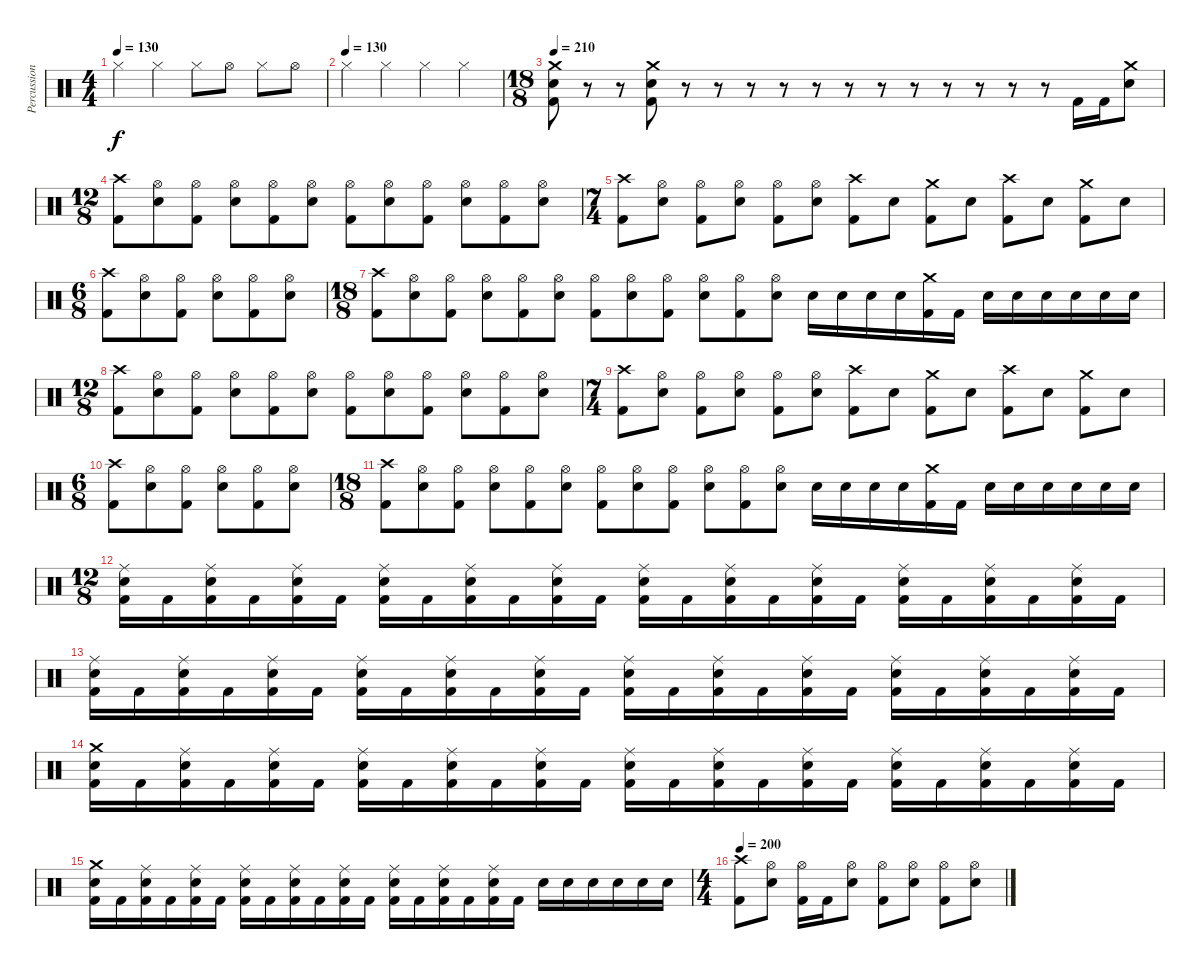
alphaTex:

\track ("Percussion" "Percussion") {instrument percussion}
\staff {score}
\articulation defaults
\ts (4 4)
\tempo 130
\clef neutral
\ks c "Hi-Hat (closed)".4{dy f} "Hi-Hat (closed)".4 "Hi-Hat (closed)".8 "Hi-Hat (open)".8 "Hi-Hat (closed)".8 "Hi-Hat (open)".8
|
\tempo (130)
"Hi-Hat (closed)".4 "Hi-Hat (closed)".4 "Hi-Hat (closed)".4 "Hi-Hat (closed)".4 |
\ts (18 8)
\tempo 210
("Crash medium (hit)" "Electric Snare (hit)" "Kick (hit) 2").8 r.8 r.8 ("Crash medium (hit)" "Electric Snare (hit)" "Kick (hit) 2").8 r.8 r.8 r.8 r.8 r.8 r.8 r.8 r.8 r.8 r.8 r.8 r.8 "Kick (hit) 2".16 "Kick (hit) 2".16 ("Crash medium (hit)" "Electric Snare (hit)").8 |
\ts (12 8)
("Crash high (hit)" "Kick (hit) 2").8 ("Hi-Hat (open)" "Electric Snare (hit)").8 ("Hi-Hat (open)" "Kick (hit) 2").8 ("Hi-Hat (open)" "Electric Snare (hit)").8 ("Hi-Hat (open)" "Kick (hit) 2").8 ("Hi-Hat (open)" "Electric Snare (hit)").8 ("Hi-Hat (open)" "Kick (hit) 2").8 ("Hi-Hat (open)" "Electric Snare (hit)").8 ("Hi-Hat (open)" "Kick (hit) 2").8 ("Hi-Hat (open)" "Electric Snare (hit)").8 ("Hi-Hat (open)" "Kick (hit) 2").8 ("Hi-Hat (open)" "Electric Snare (hit)").8 |
\ts (7 4)
("Crash high (hit)" "Kick (hit) 2").8 ("Hi-Hat (open)" "Electric Snare (hit)").8 ("Hi-Hat (open)" "Kick (hit) 2").8 ("Hi-Hat (open)" "Electric Snare (hit)").8 ("Hi-Hat (open)" "Kick (hit) 2").8 ("Hi-Hat (open)" "Electric Snare (hit)").8 ("Crash high (hit)" "Kick (hit) 2").8 "Electric Snare (hit)".8 ("Crash medium (hit)" "Kick (hit) 2").8 "Electric Snare (hit)".8 ("Crash high (hit)" "Kick (hit) 2").8 "Electric Snare (hit)".8 ("Crash medium (hit)" "Kick (hit) 2").8 "Electric Snare (hit)".8 |
\ts (6 8)
("Crash high (hit)" "Kick (hit) 2").8 ("Hi-Hat (open)" "Electric Snare (hit)").8 ("Hi-Hat (open)" "Kick (hit) 2").8 ("Hi-Hat (open)" "Electric Snare (hit)").8 ("Hi-Hat (open)" "Kick (hit) 2").8 ("Hi-Hat (open)" "Electric Snare (hit)").8 |
\ts (18 8)
("Crash high (hit)" "Kick (hit) 2").8 ("Hi-Hat (open)" "Electric Snare (hit)").8 ("Hi-Hat (open)" "Kick (hit) 2").8 ("Hi-Hat (open)" "Electric Snare (hit)").8 ("Hi-Hat (open)" "Kick (hit) 2").8 ("Hi-Hat (open)" "Electric Snare (hit)").8 ("Hi-Hat (open)" "Kick (hit) 2").8 ("Hi-Hat (open)" "Electric Snare (hit)").8 ("Hi-Hat (open)" "Kick (hit) 2").8 ("Hi-Hat (open)" "Electric Snare (hit)").8 ("Hi-Hat (open)" "Kick (hit) 2").8 ("Hi-Hat (open)" "Electric Snare (hit)").8 "Electric Snare (hit)".16 "Electric Snare (hit)".16 "Electric Snare (hit)".16 "Electric Snare (hit)".16 ("Crash medium (hit)" "Kick (hit) 2").16 "Kick (hit) 2".16 "Electric Snare (hit)".16 "Electric Snare (hit)".16 "Electric Snare (hit)".16 "Electric Snare (hit)".16 "Electric Snare (hit)".16 "Electric Snare (hit)".16 |
\ts (12 8)
("Crash high (hit)" "Kick (hit) 2").8 ("Hi-Hat (open)" "Electric Snare (hit)").8 ("Hi-Hat (open)" "Kick (hit) 2").8 ("Hi-Hat (open)" "Electric Snare (hit)").8 ("Hi-Hat (open)" "Kick (hit) 2").8 ("Hi-Hat (open)" "Electric Snare (hit)").8 ("Hi-Hat (open)" "Kick (hit) 2").8 ("Hi-Hat (open)" "Electric Snare (hit)").8 ("Hi-Hat (open)" "Kick (hit) 2").8 ("Hi-Hat (open)" "Electric Snare (hit)").8 ("Hi-Hat (open)" "Kick (hit) 2").8 ("Hi-Hat (open)" "Electric Snare (hit)").8 |
\ts (7 4)
("Crash high (hit)" "Kick (hit) 2").8 ("Hi-Hat (open)" "Electric Snare (hit)").8 ("Hi-Hat (open)" "Kick (hit) 2").8 ("Hi-Hat (open)" "Electric Snare (hit)").8 ("Hi-Hat (open)" "Kick (hit) 2").8 ("Hi-Hat (open)" "Electric Snare (hit)").8 ("Crash high (hit)" "Kick (hit) 2").8 "Electric Snare (hit)".8 ("Crash medium (hit)" "Kick (hit) 2").8 "Electric Snare (hit)".8 ("Crash high (hit)" "Kick (hit) 2").8 "Electric Snare (hit)".8 ("Crash medium (hit)" "Kick (hit) 2").8 "Electric Snare (hit)".8 |
\ts (6 8)
("Crash high (hit)" "Kick (hit) 2").8 ("Hi-Hat (open)" "Electric Snare (hit)").8 ("Hi-Hat (open)" "Kick (hit) 2").8 ("Hi-Hat (open)" "Electric Snare (hit)").8 ("Hi-Hat (open)" "Kick (hit) 2").8 ("Hi-Hat (open)" "Electric Snare (hit)").8 |
\ts (18 8)
("Crash high (hit)" "Kick (hit) 2").8 ("Hi-Hat (open)" "Electric Snare (hit)").8 ("Hi-Hat (open)" "Kick (hit) 2").8 ("Hi-Hat (open)" "Electric Snare (hit)").8 ("Hi-Hat (open)" "Kick (hit) 2").8 ("Hi-Hat (open)" "Electric Snare (hit)").8 ("Hi-Hat (open)" "Kick (hit) 2").8 ("Hi-Hat (open)" "Electric Snare (hit)").8 ("Hi-Hat (open)" "Kick (hit) 2").8 ("Hi-Hat (open)" "Electric Snare (hit)").8 ("Hi-Hat (open)" "Kick (hit) 2").8 ("Hi-Hat (open)" "Electric Snare (hit)").8 "Electric Snare (hit)".16 "Electric Snare (hit)".16 "Electric Snare (hit)".16 "Electric Snare (hit)".16 ("Crash medium (hit)" "Kick (hit) 2").16 "Kick (hit) 2".16 "Electric Snare (hit)".16 "Electric Snare (hit)".16 "Electric Snare (hit)".16 "Electric Snare (hit)".16 "Electric Snare (hit)".16 "Electric Snare (hit)".16 |
\ts (12 8)
("Ride (middle)" "Electric Snare (hit)" "Kick (hit) 2").16 "Kick (hit) 2".16 ("Ride (middle)" "Electric Snare (hit)" "Kick (hit) 2").16 "Kick (hit) 2".16 ("Ride (middle)" "Electric Snare (hit)" "Kick (hit) 2").16 "Kick (hit) 2".16 ("Ride (middle)" "Electric Snare (hit)" "Kick (hit) 2").16 "Kick (hit) 2".16 ("Ride (middle)" "Electric Snare (hit)" "Kick (hit) 2").16 "Kick (hit) 2".16 ("Ride (middle)" "Electric Snare (hit)" "Kick (hit) 2").16 "Kick (hit) 2".16 ("Ride (middle)" "Electric Snare (hit)" "Kick (hit) 2").16 "Kick (hit) 2".16 ("Ride (middle)" "Electric Snare (hit)" "Kick (hit) 2").16 "Kick (hit) 2".16 ("Ride (middle)" "Electric Snare (hit)" "Kick (hit) 2").16 "Kick (hit) 2".16 ("Ride (middle)" "Electric Snare (hit)" "Kick (hit) 2").16 "Kick (hit) 2".16 ("Ride (middle)" "Electric Snare (hit)" "Kick (hit) 2").16 "Kick (hit) 2".16 ("Ride (middle)" "Electric Snare (hit)" "Kick (hit) 2").16 "Kick (hit) 2".16 |
("Ride (middle)" "Electric Snare (hit)" "Kick (hit) 2").16 "Kick (hit) 2".16 ("Ride (middle)" "Electric Snare (hit)" "Kick (hit) 2").16 "Kick (hit) 2".16 ("Ride (middle)" "Electric Snare (hit)" "Kick (hit) 2").16 "Kick (hit) 2".16 ("Ride (middle)" "Electric Snare (hit)" "Kick (hit) 2").16 "Kick (hit) 2".16 ("Ride (middle)" "Electric Snare (hit)" "Kick (hit) 2").16 "Kick (hit) 2".16 ("Ride (middle)" "Electric Snare (hit)" "Kick (hit) 2").16 "Kick (hit) 2".16 ("Ride (middle)" "Electric Snare (hit)" "Kick (hit) 2").16 "Kick (hit) 2".16 ("Ride (middle)" "Electric Snare (hit)" "Kick (hit) 2").16 "Kick (hit) 2".16 ("Ride (middle)" "Electric Snare (hit)" "Kick (hit) 2").16 "Kick (hit) 2".16 ("Ride (middle)" "Electric Snare (hit)" "Kick (hit) 2").16 "Kick (hit) 2".16 ("Ride (middle)" "Electric Snare (hit)" "Kick (hit) 2").16 "Kick (hit) 2".16 ("Ride (middle)" "Electric Snare (hit)" "Kick (hit) 2").16 "Kick (hit) 2".16 |
("Crash medium (hit)" "Electric Snare (hit)" "Kick (hit) 2").16 "Kick (hit) 2".16 ("Ride (middle)" "Electric Snare (hit)" "Kick (hit) 2").16 "Kick (hit) 2".16 ("Ride (middle)" "Electric Snare (hit)" "Kick (hit) 2").16 "Kick (hit) 2".16 ("Ride (middle)" "Electric Snare (hit)" "Kick (hit) 2").16 "Kick (hit) 2".16 ("Ride (middle)" "Electric Snare (hit)" "Kick (hit) 2").16 "Kick (hit) 2".16 ("Ride (middle)" "Electric Snare (hit)" "Kick (hit) 2").16 "Kick (hit) 2".16 ("Ride (middle)" "Electric Snare (hit)" "Kick (hit) 2").16 "Kick (hit) 2".16 ("Ride (middle)" "Electric Snare (hit)" "Kick (hit) 2").16 "Kick (hit) 2".16 ("Ride (middle)" "Electric Snare (hit)" "Kick (hit) 2").16 "Kick (hit) 2".16 ("Ride (middle)" "Electric Snare (hit)" "Kick (hit) 2").16 "Kick (hit) 2".16 ("Ride (middle)" "Electric Snare (hit)" "Kick (hit) 2").16 "Kick (hit) 2".16 ("Ride (middle)" "Electric Snare (hit)" "Kick (hit) 2").16 "Kick (hit) 2".16 |
("Crash medium (hit)" "Electric Snare (hit)" "Kick (hit) 2").16 "Kick (hit) 2".16 ("Ride (middle)" "Electric Snare (hit)" "Kick (hit) 2").16 "Kick (hit) 2".16 ("Ride (middle)" "Electric Snare (hit)" "Kick (hit) 2").16 "Kick (hit) 2".16 ("Ride (middle)" "Electric Snare (hit)" "Kick (hit) 2").16 "Kick (hit) 2".16 ("Ride (middle)" "Electric Snare (hit)" "Kick (hit) 2").16 "Kick (hit) 2".16 ("Ride (middle)" "Electric Snare (hit)" "Kick (hit) 2").16 "Kick (hit) 2".16 ("Ride (middle)" "Electric Snare (hit)" "Kick (hit) 2").16 "Kick (hit) 2".16 ("Ride (middle)" "Electric Snare (hit)" "Kick (hit) 2").16 "Kick (hit) 2".16 ("Ride (middle)" "Electric Snare (hit)" "Kick (hit) 2").16 "Kick (hit) 2".16 "Electric Snare (hit)".16 "Electric Snare (hit)".16 "Electric Snare (hit)".16 "Electric Snare (hit)".16 "Electric Snare (hit)".16 "Electric Snare (hit)".16 |
\ts (4 4)
\tempo 200
("Crash high (hit)" "Kick (hit) 2").8 ("Hi-Hat (open)" "Electric Snare (hit)").8 ("Hi-Hat (open)" "Kick (hit) 2").16 "Kick (hit) 2".16 ("Hi-Hat (open)" "Electric Snare (hit)").8 ("Hi-Hat (open)" "Kick (hit) 2").8 ("Hi-Hat (open)" "Electric Snare (hit)").8 ("Hi-Hat (open)" "Kick (hit) 2").8 ("Hi-Hat (open)" "Electric Snare (hit)").8
